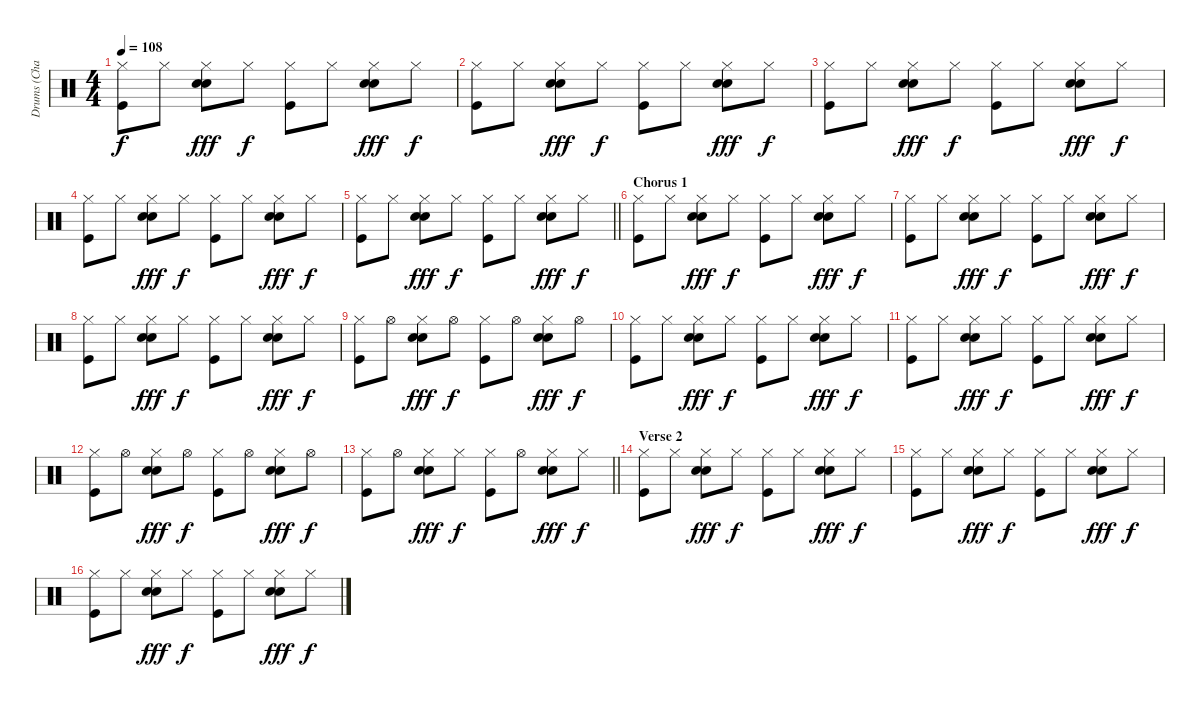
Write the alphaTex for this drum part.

\track ("Drums (Charlie)" "Drums (Cha") {instrument percussion}
\staff {score}
\articulation defaults
\ts (4 4)
\tempo 108
\clef neutral
\ks c
("Hi-Hat (closed)" "Kick (hit)").8{dy f} "Hi-Hat (closed)".8 ("Hi-Hat (closed)" "Snare (hit) 2" "Electric Snare (hit)").8{dy fff} "Hi-Hat (closed)".8{dy f} ("Hi-Hat (closed)" "Kick (hit)").8 "Hi-Hat (closed)".8 ("Hi-Hat (closed)" "Snare (hit) 2" "Electric Snare (hit)").8{dy fff} "Hi-Hat (closed)".8{dy f} |
("Hi-Hat (closed)" "Kick (hit)").8 "Hi-Hat (closed)".8 ("Hi-Hat (closed)" "Snare (hit) 2" "Electric Snare (hit)").8{dy fff} "Hi-Hat (closed)".8{dy f} ("Hi-Hat (closed)" "Kick (hit)").8 "Hi-Hat (closed)".8 ("Hi-Hat (closed)" "Snare (hit) 2" "Electric Snare (hit)").8{dy fff} "Hi-Hat (closed)".8{dy f} |
("Hi-Hat (closed)" "Kick (hit)").8 "Hi-Hat (closed)".8 ("Hi-Hat (closed)" "Snare (hit) 2" "Electric Snare (hit)").8{dy fff} "Hi-Hat (closed)".8{dy f} ("Hi-Hat (closed)" "Kick (hit)").8 "Hi-Hat (closed)".8 ("Hi-Hat (closed)" "Snare (hit) 2" "Electric Snare (hit)").8{dy fff} "Hi-Hat (closed)".8{dy f} |
("Hi-Hat (closed)" "Kick (hit)").8 "Hi-Hat (closed)".8 ("Hi-Hat (closed)" "Snare (hit) 2" "Electric Snare (hit)").8{dy fff} "Hi-Hat (closed)".8{dy f} ("Hi-Hat (closed)" "Kick (hit)").8 "Hi-Hat (closed)".8 ("Hi-Hat (closed)" "Snare (hit) 2" "Electric Snare (hit)").8{dy fff} "Hi-Hat (closed)".8{dy f} |
\barLineRight lightlight
("Hi-Hat (closed)" "Kick (hit)").8 "Hi-Hat (closed)".8 ("Hi-Hat (closed)" "Snare (hit) 2" "Electric Snare (hit)").8{dy fff} "Hi-Hat (closed)".8{dy f} ("Hi-Hat (closed)" "Kick (hit)").8 "Hi-Hat (closed)".8 ("Hi-Hat (closed)" "Snare (hit) 2" "Electric Snare (hit)").8{dy fff} "Hi-Hat (closed)".8{dy f} |
\section ("" "Chorus 1")
("Hi-Hat (closed)" "Kick (hit)").8 "Hi-Hat (closed)".8 ("Hi-Hat (closed)" "Snare (hit) 2" "Electric Snare (hit)").8{dy fff} "Hi-Hat (closed)".8{dy f} ("Hi-Hat (closed)" "Kick (hit)").8 "Hi-Hat (closed)".8 ("Hi-Hat (closed)" "Snare (hit) 2" "Electric Snare (hit)").8{dy fff} "Hi-Hat (closed)".8{dy f} |
("Hi-Hat (closed)" "Kick (hit)").8 "Hi-Hat (closed)".8 ("Hi-Hat (closed)" "Snare (hit) 2" "Electric Snare (hit)").8{dy fff} "Hi-Hat (closed)".8{dy f} ("Hi-Hat (closed)" "Kick (hit)").8 "Hi-Hat (closed)".8 ("Hi-Hat (closed)" "Snare (hit) 2" "Electric Snare (hit)").8{dy fff} "Hi-Hat (closed)".8{dy f} |
("Hi-Hat (closed)" "Kick (hit)").8 "Hi-Hat (closed)".8 ("Hi-Hat (closed)" "Snare (hit) 2" "Electric Snare (hit)").8{dy fff} "Hi-Hat (closed)".8{dy f} ("Hi-Hat (closed)" "Kick (hit)").8 "Hi-Hat (closed)".8 ("Hi-Hat (closed)" "Snare (hit) 2" "Electric Snare (hit)").8{dy fff} "Hi-Hat (closed)".8{dy f} |
("Hi-Hat (closed)" "Kick (hit)").8 "Hi-Hat (open)".8 ("Hi-Hat (closed)" "Snare (hit) 2" "Electric Snare (hit)").8{dy fff} "Hi-Hat (open)".8{dy f} ("Hi-Hat (closed)" "Kick (hit)").8 "Hi-Hat (open)".8 ("Hi-Hat (closed)" "Snare (hit) 2" "Electric Snare (hit)").8{dy fff} "Hi-Hat (open)".8{dy f} |
("Hi-Hat (closed)" "Kick (hit)").8 "Hi-Hat (closed)".8 ("Hi-Hat (closed)" "Snare (hit) 2" "Electric Snare (hit)").8{dy fff} "Hi-Hat (closed)".8{dy f} ("Hi-Hat (closed)" "Kick (hit)").8 "Hi-Hat (closed)".8 ("Hi-Hat (closed)" "Snare (hit) 2" "Electric Snare (hit)").8{dy fff} "Hi-Hat (closed)".8{dy f} |
("Hi-Hat (closed)" "Kick (hit)").8 "Hi-Hat (closed)".8 ("Hi-Hat (closed)" "Snare (hit) 2" "Electric Snare (hit)").8{dy fff} "Hi-Hat (closed)".8{dy f} ("Hi-Hat (closed)" "Kick (hit)").8 "Hi-Hat (closed)".8 ("Hi-Hat (closed)" "Snare (hit) 2" "Electric Snare (hit)").8{dy fff} "Hi-Hat (closed)".8{dy f} |
("Hi-Hat (closed)" "Kick (hit)").8 "Hi-Hat (open)".8 ("Hi-Hat (closed)" "Snare (hit) 2" "Electric Snare (hit)").8{dy fff} "Hi-Hat (open)".8{dy f} ("Hi-Hat (closed)" "Kick (hit)").8 "Hi-Hat (open)".8 ("Hi-Hat (closed)" "Snare (hit) 2" "Electric Snare (hit)").8{dy fff} "Hi-Hat (open)".8{dy f} |
\barLineRight lightlight
("Hi-Hat (closed)" "Kick (hit)").8 "Hi-Hat (open)".8 ("Hi-Hat (closed)" "Snare (hit) 2" "Electric Snare (hit)").8{dy fff} "Hi-Hat (closed)".8{dy f} ("Hi-Hat (closed)" "Kick (hit)").8 "Hi-Hat (open)".8 ("Hi-Hat (closed)" "Snare (hit) 2" "Electric Snare (hit)").8{dy fff} "Hi-Hat (closed)".8{dy f} |
\section ("" "Verse 2")
("Hi-Hat (closed)" "Kick (hit)").8 "Hi-Hat (closed)".8 ("Hi-Hat (closed)" "Snare (hit) 2" "Electric Snare (hit)").8{dy fff} "Hi-Hat (closed)".8{dy f} ("Hi-Hat (closed)" "Kick (hit)").8 "Hi-Hat (closed)".8 ("Hi-Hat (closed)" "Snare (hit) 2" "Electric Snare (hit)").8{dy fff} "Hi-Hat (closed)".8{dy f} |
("Hi-Hat (closed)" "Kick (hit)").8 "Hi-Hat (closed)".8 ("Hi-Hat (closed)" "Snare (hit) 2" "Electric Snare (hit)").8{dy fff} "Hi-Hat (closed)".8{dy f} ("Hi-Hat (closed)" "Kick (hit)").8 "Hi-Hat (closed)".8 ("Hi-Hat (closed)" "Snare (hit) 2" "Electric Snare (hit)").8{dy fff} "Hi-Hat (closed)".8{dy f} |
("Hi-Hat (closed)" "Kick (hit)").8 "Hi-Hat (closed)".8 ("Hi-Hat (closed)" "Snare (hit) 2" "Electric Snare (hit)").8{dy fff} "Hi-Hat (closed)".8{dy f} ("Hi-Hat (closed)" "Kick (hit)").8 "Hi-Hat (closed)".8 ("Hi-Hat (closed)" "Snare (hit) 2" "Electric Snare (hit)").8{dy fff} "Hi-Hat (closed)".8{dy f}
